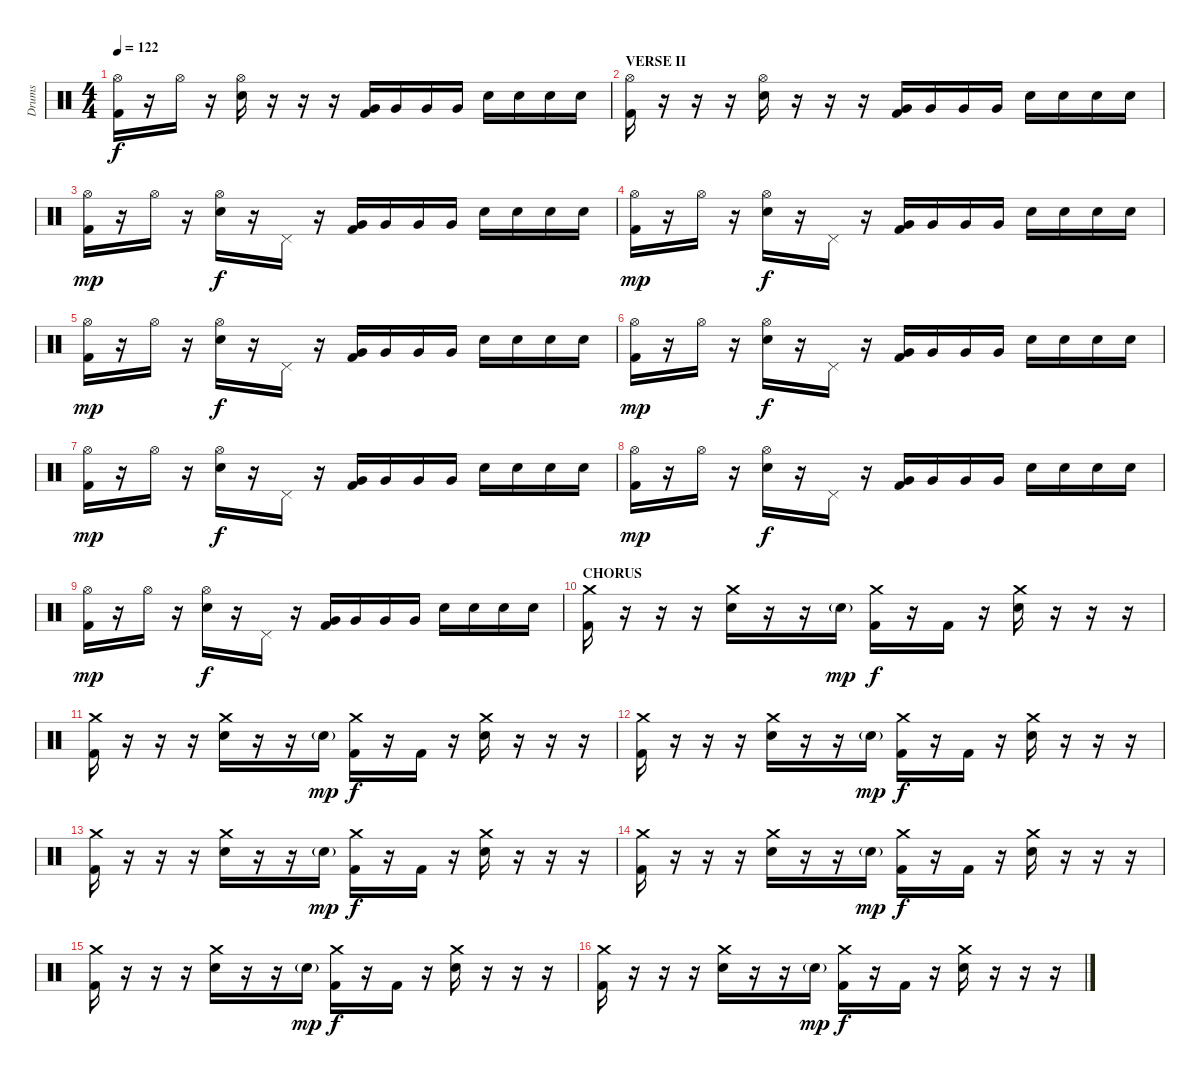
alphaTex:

\track ("Drums" "Drums") {instrument percussion}
\staff {score}
\articulation defaults
\ts (4 4)
\tempo 122
\clef neutral
\ks c
("Hi-Hat (open)" "Kick (hit) 2").16{dy f} r.16 "Hi-Hat (open)".16 r.16 ("Hi-Hat (open)" "Electric Snare (hit)").16 r.16 r.16 r.16 ("Very Low Tom (hit)" "Kick (hit) 2").16 "Very Low Tom (hit)".16 "Very Low Tom (hit)".16 "Very Low Tom (hit)".16 "Electric Snare (hit)".16 "Electric Snare (hit)".16 "Electric Snare (hit)".16 "Electric Snare (hit)".16 |
\section ("" "VERSE II")
("Hi-Hat (open)" "Kick (hit) 2").16 r.16 r.16 r.16 ("Hi-Hat (open)" "Electric Snare (hit)").16 r.16 r.16 r.16 ("Very Low Tom (hit)" "Kick (hit) 2").16 "Very Low Tom (hit)".16 "Very Low Tom (hit)".16 "Very Low Tom (hit)".16 "Electric Snare (hit)".16 "Electric Snare (hit)".16 "Electric Snare (hit)".16 "Electric Snare (hit)".16 |
("Hi-Hat (open)" "Kick (hit) 2").16{dy mp} r.16 "Hi-Hat (open)".16 r.16 ("Hi-Hat (open)" "Electric Snare (hit)").16{dy f} r.16 "Pedal Hi-Hat (hit)".16 r.16 ("Very Low Tom (hit)" "Kick (hit) 2").16 "Very Low Tom (hit)".16 "Very Low Tom (hit)".16 "Very Low Tom (hit)".16 "Electric Snare (hit)".16 "Electric Snare (hit)".16 "Electric Snare (hit)".16 "Electric Snare (hit)".16 |
("Hi-Hat (open)" "Kick (hit) 2").16{dy mp} r.16 "Hi-Hat (open)".16 r.16 ("Hi-Hat (open)" "Electric Snare (hit)").16{dy f} r.16 "Pedal Hi-Hat (hit)".16 r.16 ("Very Low Tom (hit)" "Kick (hit) 2").16 "Very Low Tom (hit)".16 "Very Low Tom (hit)".16 "Very Low Tom (hit)".16 "Electric Snare (hit)".16 "Electric Snare (hit)".16 "Electric Snare (hit)".16 "Electric Snare (hit)".16 |
("Hi-Hat (open)" "Kick (hit) 2").16{dy mp} r.16 "Hi-Hat (open)".16 r.16 ("Hi-Hat (open)" "Electric Snare (hit)").16{dy f} r.16 "Pedal Hi-Hat (hit)".16 r.16 ("Very Low Tom (hit)" "Kick (hit) 2").16 "Very Low Tom (hit)".16 "Very Low Tom (hit)".16 "Very Low Tom (hit)".16 "Electric Snare (hit)".16 "Electric Snare (hit)".16 "Electric Snare (hit)".16 "Electric Snare (hit)".16 |
("Hi-Hat (open)" "Kick (hit) 2").16{dy mp} r.16 "Hi-Hat (open)".16 r.16 ("Hi-Hat (open)" "Electric Snare (hit)").16{dy f} r.16 "Pedal Hi-Hat (hit)".16 r.16 ("Very Low Tom (hit)" "Kick (hit) 2").16 "Very Low Tom (hit)".16 "Very Low Tom (hit)".16 "Very Low Tom (hit)".16 "Electric Snare (hit)".16 "Electric Snare (hit)".16 "Electric Snare (hit)".16 "Electric Snare (hit)".16 |
("Hi-Hat (open)" "Kick (hit) 2").16{dy mp} r.16 "Hi-Hat (open)".16 r.16 ("Hi-Hat (open)" "Electric Snare (hit)").16{dy f} r.16 "Pedal Hi-Hat (hit)".16 r.16 ("Very Low Tom (hit)" "Kick (hit) 2").16 "Very Low Tom (hit)".16 "Very Low Tom (hit)".16 "Very Low Tom (hit)".16 "Electric Snare (hit)".16 "Electric Snare (hit)".16 "Electric Snare (hit)".16 "Electric Snare (hit)".16 |
("Hi-Hat (open)" "Kick (hit) 2").16{dy mp} r.16 "Hi-Hat (open)".16 r.16 ("Hi-Hat (open)" "Electric Snare (hit)").16{dy f} r.16 "Pedal Hi-Hat (hit)".16 r.16 ("Very Low Tom (hit)" "Kick (hit) 2").16 "Very Low Tom (hit)".16 "Very Low Tom (hit)".16 "Very Low Tom (hit)".16 "Electric Snare (hit)".16 "Electric Snare (hit)".16 "Electric Snare (hit)".16 "Electric Snare (hit)".16 |
("Hi-Hat (open)" "Kick (hit) 2").16{dy mp} r.16 "Hi-Hat (open)".16 r.16 ("Hi-Hat (open)" "Electric Snare (hit)").16{dy f} r.16 "Pedal Hi-Hat (hit)".16 r.16 ("Very Low Tom (hit)" "Kick (hit) 2").16 "Very Low Tom (hit)".16 "Very Low Tom (hit)".16 "Very Low Tom (hit)".16 "Electric Snare (hit)".16 "Electric Snare (hit)".16 "Electric Snare (hit)".16 "Electric Snare (hit)".16 |
\section ("" "CHORUS")
("Crash medium (hit)" "Kick (hit) 2").16 r.16 r.16 r.16 ("Crash medium (hit)" "Electric Snare (hit)").16 r.16 r.16 "Electric Snare (hit)"{g}.16{dy mp} ("Crash medium (hit)" "Kick (hit) 2").16{dy f} r.16 "Kick (hit) 2".16 r.16 ("Crash medium (hit)" "Electric Snare (hit)").16 r.16 r.16 r.16 |
("Crash medium (hit)" "Kick (hit) 2").16 r.16 r.16 r.16 ("Crash medium (hit)" "Electric Snare (hit)").16 r.16 r.16 "Electric Snare (hit)"{g}.16{dy mp} ("Crash medium (hit)" "Kick (hit) 2").16{dy f} r.16 "Kick (hit) 2".16 r.16 ("Crash medium (hit)" "Electric Snare (hit)").16 r.16 r.16 r.16 |
("Crash medium (hit)" "Kick (hit) 2").16 r.16 r.16 r.16 ("Crash medium (hit)" "Electric Snare (hit)").16 r.16 r.16 "Electric Snare (hit)"{g}.16{dy mp} ("Crash medium (hit)" "Kick (hit) 2").16{dy f} r.16 "Kick (hit) 2".16 r.16 ("Crash medium (hit)" "Electric Snare (hit)").16 r.16 r.16 r.16 |
("Crash medium (hit)" "Kick (hit) 2").16 r.16 r.16 r.16 ("Crash medium (hit)" "Electric Snare (hit)").16 r.16 r.16 "Electric Snare (hit)"{g}.16{dy mp} ("Crash medium (hit)" "Kick (hit) 2").16{dy f} r.16 "Kick (hit) 2".16 r.16 ("Crash medium (hit)" "Electric Snare (hit)").16 r.16 r.16 r.16 |
("Crash medium (hit)" "Kick (hit) 2").16 r.16 r.16 r.16 ("Crash medium (hit)" "Electric Snare (hit)").16 r.16 r.16 "Electric Snare (hit)"{g}.16{dy mp} ("Crash medium (hit)" "Kick (hit) 2").16{dy f} r.16 "Kick (hit) 2".16 r.16 ("Crash medium (hit)" "Electric Snare (hit)").16 r.16 r.16 r.16 |
("Crash medium (hit)" "Kick (hit) 2").16 r.16 r.16 r.16 ("Crash medium (hit)" "Electric Snare (hit)").16 r.16 r.16 "Electric Snare (hit)"{g}.16{dy mp} ("Crash medium (hit)" "Kick (hit) 2").16{dy f} r.16 "Kick (hit) 2".16 r.16 ("Crash medium (hit)" "Electric Snare (hit)").16 r.16 r.16 r.16 |
("Crash medium (hit)" "Kick (hit) 2").16 r.16 r.16 r.16 ("Crash medium (hit)" "Electric Snare (hit)").16 r.16 r.16 "Electric Snare (hit)"{g}.16{dy mp} ("Crash medium (hit)" "Kick (hit) 2").16{dy f} r.16 "Kick (hit) 2".16 r.16 ("Crash medium (hit)" "Electric Snare (hit)").16 r.16 r.16 r.16
